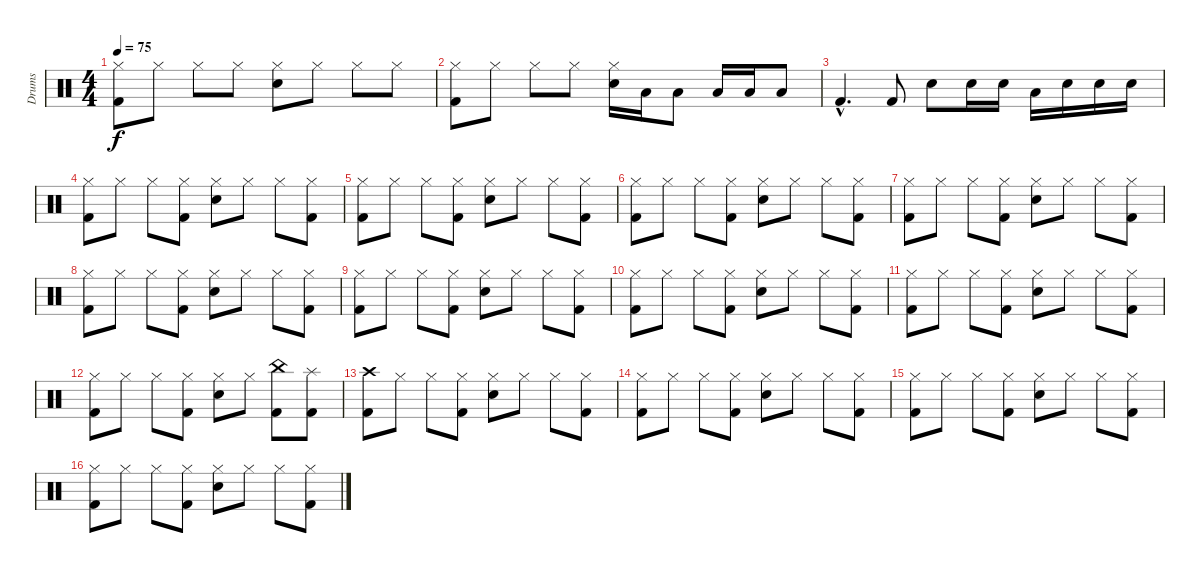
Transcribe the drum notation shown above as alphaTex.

\track ("Drums" "Drums") {instrument percussion}
\staff {score}
\articulation defaults
\ts (4 4)
\tempo 75
\clef neutral
\ks c
("Kick (hit) 2" "Hi-Hat (closed)").8{dy f} "Hi-Hat (closed)".8 "Hi-Hat (closed)".8 "Hi-Hat (closed)".8 ("Snare (hit) 2" "Hi-Hat (closed)").8 "Hi-Hat (closed)".8 "Hi-Hat (closed)".8 "Hi-Hat (closed)".8 |
("Kick (hit) 2" "Hi-Hat (closed)").8 "Hi-Hat (closed)".8 "Hi-Hat (closed)".8 "Hi-Hat (closed)".8 ("Snare (hit) 2" "Hi-Hat (closed)").16 "Low Tom (hit)".16 "Low Tom (hit)".8 "Low Tom (hit)".16 "Low Tom (hit)".16 "Low Tom (hit)".8 |
"Kick (hit) 2"{hac}.4{d} "Kick (hit) 2".8 "Snare (hit) 2".8 "Snare (hit) 2".16 "Snare (hit) 2".16 "Low Tom (hit)".16 "Snare (hit) 2".16 "Snare (hit) 2".16 "Snare (hit) 2".16 |
("Kick (hit) 2" "Hi-Hat (closed)").8 "Hi-Hat (closed)".8 "Hi-Hat (closed)".8 ("Kick (hit) 2" "Hi-Hat (closed)").8 ("Snare (hit) 2" "Hi-Hat (closed)").8 "Hi-Hat (closed)".8 "Hi-Hat (closed)".8 ("Kick (hit) 2" "Hi-Hat (closed)").8 |
("Kick (hit) 2" "Hi-Hat (closed)").8 "Hi-Hat (closed)".8 "Hi-Hat (closed)".8 ("Kick (hit) 2" "Hi-Hat (closed)").8 ("Snare (hit) 2" "Hi-Hat (closed)").8 "Hi-Hat (closed)".8 "Hi-Hat (closed)".8 ("Kick (hit) 2" "Hi-Hat (closed)").8 |
("Kick (hit) 2" "Hi-Hat (closed)").8 "Hi-Hat (closed)".8 "Hi-Hat (closed)".8 ("Kick (hit) 2" "Hi-Hat (closed)").8 ("Snare (hit) 2" "Hi-Hat (closed)").8 "Hi-Hat (closed)".8 "Hi-Hat (closed)".8 ("Kick (hit) 2" "Hi-Hat (closed)").8 |
("Kick (hit) 2" "Hi-Hat (closed)").8 "Hi-Hat (closed)".8 "Hi-Hat (closed)".8 ("Kick (hit) 2" "Hi-Hat (closed)").8 ("Snare (hit) 2" "Hi-Hat (closed)").8 "Hi-Hat (closed)".8 "Hi-Hat (closed)".8 ("Kick (hit) 2" "Hi-Hat (closed)").8 |
("Kick (hit) 2" "Hi-Hat (closed)").8 "Hi-Hat (closed)".8 "Hi-Hat (closed)".8 ("Kick (hit) 2" "Hi-Hat (closed)").8 ("Snare (hit) 2" "Hi-Hat (closed)").8 "Hi-Hat (closed)".8 "Hi-Hat (closed)".8 ("Kick (hit) 2" "Hi-Hat (closed)").8 |
("Kick (hit) 2" "Hi-Hat (closed)").8 "Hi-Hat (closed)".8 "Hi-Hat (closed)".8 ("Kick (hit) 2" "Hi-Hat (closed)").8 ("Snare (hit) 2" "Hi-Hat (closed)").8 "Hi-Hat (closed)".8 "Hi-Hat (closed)".8 ("Kick (hit) 2" "Hi-Hat (closed)").8 |
("Kick (hit) 2" "Hi-Hat (closed)").8 "Hi-Hat (closed)".8 "Hi-Hat (closed)".8 ("Kick (hit) 2" "Hi-Hat (closed)").8 ("Snare (hit) 2" "Hi-Hat (closed)").8 "Hi-Hat (closed)".8 "Hi-Hat (closed)".8 ("Kick (hit) 2" "Hi-Hat (closed)").8 |
("Kick (hit) 2" "Hi-Hat (closed)").8 "Hi-Hat (closed)".8 "Hi-Hat (closed)".8 ("Kick (hit) 2" "Hi-Hat (closed)").8 ("Snare (hit) 2" "Hi-Hat (closed)").8 "Hi-Hat (closed)".8 "Hi-Hat (closed)".8 ("Kick (hit) 2" "Hi-Hat (closed)").8 |
("Kick (hit) 2" "Hi-Hat (closed)").8 "Hi-Hat (closed)".8 "Hi-Hat (closed)".8 ("Kick (hit) 2" "Hi-Hat (closed)").8 ("Snare (hit) 2" "Hi-Hat (closed)").8 "Hi-Hat (closed)".8 ("Kick (hit) 2" "China (hit)").8 ("Kick (hit) 2" "Splash (hit)").8 |
("Kick (hit) 2" "Crash high (hit)").8 "Hi-Hat (closed)".8 "Hi-Hat (closed)".8 ("Kick (hit) 2" "Hi-Hat (closed)").8 ("Snare (hit) 2" "Hi-Hat (closed)").8 "Hi-Hat (closed)".8 "Hi-Hat (closed)".8 ("Kick (hit) 2" "Hi-Hat (closed)").8 |
("Kick (hit) 2" "Hi-Hat (closed)").8 "Hi-Hat (closed)".8 "Hi-Hat (closed)".8 ("Kick (hit) 2" "Hi-Hat (closed)").8 ("Snare (hit) 2" "Hi-Hat (closed)").8 "Hi-Hat (closed)".8 "Hi-Hat (closed)".8 ("Kick (hit) 2" "Hi-Hat (closed)").8 |
("Kick (hit) 2" "Hi-Hat (closed)").8 "Hi-Hat (closed)".8 "Hi-Hat (closed)".8 ("Kick (hit) 2" "Hi-Hat (closed)").8 ("Snare (hit) 2" "Hi-Hat (closed)").8 "Hi-Hat (closed)".8 "Hi-Hat (closed)".8 ("Kick (hit) 2" "Hi-Hat (closed)").8 |
("Kick (hit) 2" "Hi-Hat (closed)").8 "Hi-Hat (closed)".8 "Hi-Hat (closed)".8 ("Kick (hit) 2" "Hi-Hat (closed)").8 ("Snare (hit) 2" "Hi-Hat (closed)").8 "Hi-Hat (closed)".8 "Hi-Hat (closed)".8 ("Kick (hit) 2" "Hi-Hat (closed)").8
